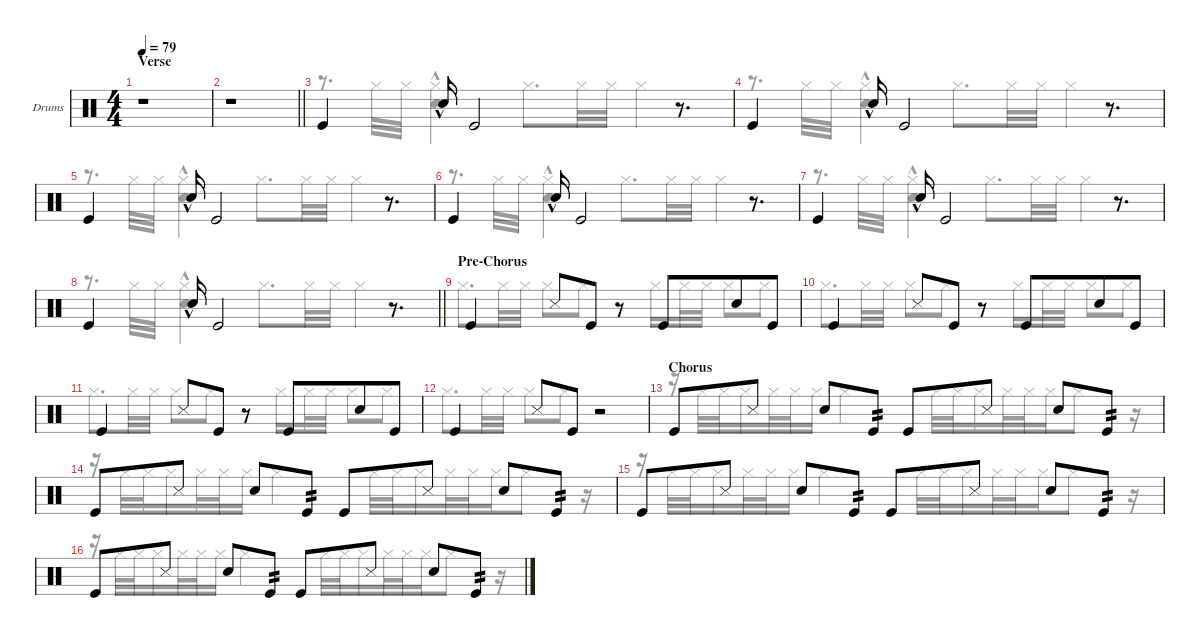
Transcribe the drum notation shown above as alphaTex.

\defaultSystemsLayout 4
\hideDynamics
\bracketExtendMode groupsimilarinstruments
\firstSystemTrackNameOrientation horizontal
\otherSystemsTrackNameOrientation horizontal
\track ("Drumkit" "Drums") {multiBarRest instrument percussion}
\staff {score}
\articulation defaults
\voice
\ts (4 4)
\section ("" "Verse")
\tempo 79
\clef neutral
\ks c
r.1{dy mf} |
\barLineRight lightlight
r.1 |
"Kick (hit)".4 "Snare (hit) 2"{hac}.16{dy pp} "Kick (hit)".2{dy mf} r.8{d} |
"Kick (hit)".4 "Snare (hit) 2"{hac}.16{dy pp} "Kick (hit)".2{dy mf} r.8{d} |
"Kick (hit)".4 "Snare (hit) 2"{hac}.16{dy pp} "Kick (hit)".2{dy mf} r.8{d} |
"Kick (hit)".4 "Snare (hit) 2"{hac}.16{dy pp} "Kick (hit)".2{dy mf} r.8{d} |
"Kick (hit)".4 "Snare (hit) 2"{hac}.16{dy pp} "Kick (hit)".2{dy mf} r.8{d} |
\barLineRight lightlight "Kick (hit)".4 "Snare (hit) 2"{hac}.16{dy pp} "Kick (hit)".2{dy mf}
r.8{d} |
\section ("" "Pre-Chorus")
"Kick (hit)".4 "Snare (side stick) 3".8 "Kick (hit)".8 r.8 "Kick (hit)".8{beam merge} "Snare (hit) 2".8{beam merge} "Kick (hit)".8{beam merge} |
"Kick (hit)".4 "Snare (side stick) 3".8 "Kick (hit)".8 r.8 "Kick (hit)".8{beam merge} "Snare (hit) 2".8{beam merge} "Kick (hit)".8{beam merge} |
"Kick (hit)".4 "Snare (side stick) 3".8 "Kick (hit)".8 r.8 "Kick (hit)".8{beam merge} "Snare (hit) 2".8{beam merge} "Kick (hit)".8{beam merge} |
"Kick (hit)".4 "Snare (side stick) 3".8 "Kick (hit)".8 r.2 |
\section ("" "Chorus")
"Kick (hit)".8 "Snare (side stick) 3".8 "Snare (hit) 2".8 "Kick (hit)".8{tp 2} "Kick (hit)".8 "Snare (side stick) 3".8 "Snare (hit) 2".8 "Kick (hit)".8{tp 2} |
"Kick (hit)".8 "Snare (side stick) 3".8 "Snare (hit) 2".8 "Kick (hit)".8{tp 2} "Kick (hit)".8 "Snare (side stick) 3".8 "Snare (hit) 2".8 "Kick (hit)".8{tp 2} |
"Kick (hit)".8 "Snare (side stick) 3".8 "Snare (hit) 2".8 "Kick (hit)".8{tp 2} "Kick (hit)".8 "Snare (side stick) 3".8 "Snare (hit) 2".8 "Kick (hit)".8{tp 2} |
"Kick (hit)".8 "Snare (side stick) 3".8 "Snare (hit) 2".8 "Kick (hit)".8{tp 2} "Kick (hit)".8 "Snare (side stick) 3".8 "Snare (hit) 2".8 "Kick (hit)".8{tp 2}
\voice
\clef neutral
\ottava regular
\simile none
\ks c
|
\barLineRight lightlight
|
r.8{d} "Hi-Hat (closed)".32{dy mf beam merge} "Hi-Hat (closed)".32{beam merge} ("Hi-Hat (closed)" "Snare (hit) 2"{hac}).4 "Hi-Hat (closed)".8{d} "Hi-Hat (closed)".32{beam merge} "Hi-Hat (closed)".32{beam merge} "Hi-Hat (closed)".4 |
r.8{d} "Hi-Hat (closed)".32{beam merge} "Hi-Hat (closed)".32{beam merge} ("Hi-Hat (closed)" "Snare (hit) 2"{hac}).4 "Hi-Hat (closed)".8{d} "Hi-Hat (closed)".32{beam merge} "Hi-Hat (closed)".32{beam merge} "Hi-Hat (closed)".4 |
r.8{d} "Hi-Hat (closed)".32{beam merge} "Hi-Hat (closed)".32{beam merge} ("Hi-Hat (closed)" "Snare (hit) 2"{hac}).4 "Hi-Hat (closed)".8{d} "Hi-Hat (closed)".32{beam merge} "Hi-Hat (closed)".32{beam merge} "Hi-Hat (closed)".4 |
r.8{d} "Hi-Hat (closed)".32{beam merge} "Hi-Hat (closed)".32{beam merge} ("Hi-Hat (closed)" "Snare (hit) 2"{hac}).4 "Hi-Hat (closed)".8{d} "Hi-Hat (closed)".32{beam merge} "Hi-Hat (closed)".32{beam merge} "Hi-Hat (closed)".4 |
r.8{d} "Hi-Hat (closed)".32{beam merge} "Hi-Hat (closed)".32{beam merge} ("Hi-Hat (closed)" "Snare (hit) 2"{hac}).4 "Hi-Hat (closed)".8{d} "Hi-Hat (closed)".32{beam merge} "Hi-Hat (closed)".32{beam merge} "Hi-Hat (closed)".4 |
\barLineRight lightlight
r.8{d} "Hi-Hat (closed)".32{beam merge} "Hi-Hat (closed)".32{beam merge} ("Hi-Hat (closed)" "Snare (hit) 2"{hac}).4 "Hi-Hat (closed)".8{d} "Hi-Hat (closed)".32{beam merge} "Hi-Hat (closed)".32{beam merge} "Hi-Hat (closed)".4 |
"Hi-Hat (closed)".8{d} "Hi-Hat (closed)".32 "Hi-Hat (closed)".32 "Hi-Hat (closed)".8 "Hi-Hat (closed)".8 r.8 "Hi-Hat (closed)".16 "Hi-Hat (closed)".32 "Hi-Hat (closed)".32 "Hi-Hat (closed)".8 "Hi-Hat (closed)".8 |
"Hi-Hat (closed)".8{d} "Hi-Hat (closed)".32 "Hi-Hat (closed)".32 "Hi-Hat (closed)".8 "Hi-Hat (closed)".8 r.8 "Hi-Hat (closed)".16 "Hi-Hat (closed)".32 "Hi-Hat (closed)".32 "Hi-Hat (closed)".8 "Hi-Hat (closed)".8 |
"Hi-Hat (closed)".8{d} "Hi-Hat (closed)".32 "Hi-Hat (closed)".32 "Hi-Hat (closed)".8 "Hi-Hat (closed)".8 r.8 "Hi-Hat (closed)".16 "Hi-Hat (closed)".32 "Hi-Hat (closed)".32 "Hi-Hat (closed)".8 "Hi-Hat (closed)".8 |
"Hi-Hat (closed)".8{d} "Hi-Hat (closed)".32 "Hi-Hat (closed)".32 "Hi-Hat (closed)".8 "Hi-Hat (closed)".8 r.2 |
r.16 "Hi-Hat (closed)".32{dy mp} "Hi-Hat (closed)".32 "Hi-Hat (closed)".16 "Hi-Hat (closed)".32 "Hi-Hat (closed)".32{beam merge} "Hi-Hat (closed)".16 "Hi-Hat (closed)".4 "Hi-Hat (closed)".32 "Hi-Hat (closed)".32 "Hi-Hat (closed)".16 "Hi-Hat (closed)".32 "Hi-Hat (closed)".32{beam merge} "Hi-Hat (closed)".16 "Hi-Hat (closed)".8 r.16 |
r.16 "Hi-Hat (closed)".32 "Hi-Hat (closed)".32 "Hi-Hat (closed)".16 "Hi-Hat (closed)".32 "Hi-Hat (closed)".32{beam merge} "Hi-Hat (closed)".16 "Hi-Hat (closed)".4 "Hi-Hat (closed)".32 "Hi-Hat (closed)".32 "Hi-Hat (closed)".16 "Hi-Hat (closed)".32 "Hi-Hat (closed)".32{beam merge} "Hi-Hat (closed)".16 "Hi-Hat (closed)".8 r.16 |
r.16 "Hi-Hat (closed)".32 "Hi-Hat (closed)".32 "Hi-Hat (closed)".16 "Hi-Hat (closed)".32 "Hi-Hat (closed)".32{beam merge} "Hi-Hat (closed)".16 "Hi-Hat (closed)".4 "Hi-Hat (closed)".32 "Hi-Hat (closed)".32 "Hi-Hat (closed)".16 "Hi-Hat (closed)".32 "Hi-Hat (closed)".32{beam merge} "Hi-Hat (closed)".16 "Hi-Hat (closed)".8 r.16 |
r.16 "Hi-Hat (closed)".32 "Hi-Hat (closed)".32 "Hi-Hat (closed)".16 "Hi-Hat (closed)".32 "Hi-Hat (closed)".32{beam merge} "Hi-Hat (closed)".16 "Hi-Hat (closed)".4 "Hi-Hat (closed)".32 "Hi-Hat (closed)".32 "Hi-Hat (closed)".16 "Hi-Hat (closed)".32 "Hi-Hat (closed)".32{beam merge} "Hi-Hat (closed)".16 "Hi-Hat (closed)".8 r.16
